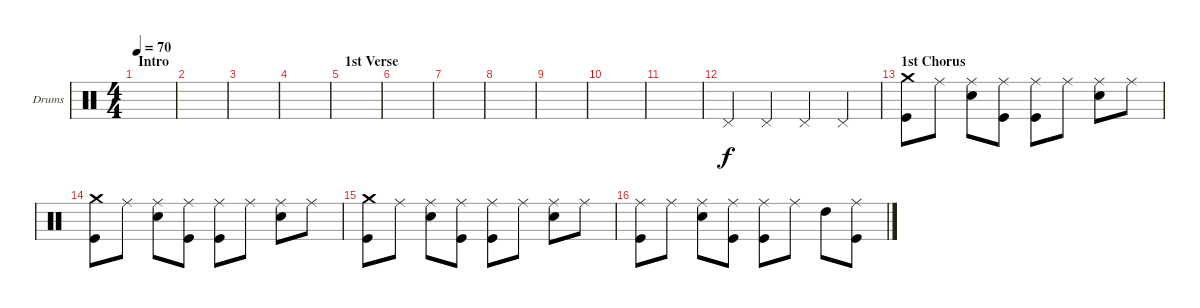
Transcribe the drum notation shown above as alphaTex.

\bracketExtendMode groupsimilarinstruments
\firstSystemTrackNameOrientation horizontal
\otherSystemsTrackNameOrientation horizontal
\track ("Drumkit" "Drums") {instrument percussion}
\staff {score}
\articulation defaults
\ts (4 4)
\section ("" "Intro")
\tempo 70
\clef neutral
\scale
0.472222
\ks c
|
\scale
0.263889 |
\scale
0.263889 |
\scale
0.333333 |
\section ("" "1st Verse")
\scale
0.333333 |
\scale
0.333333 |
\scale
0.333333 |
\scale
0.333333 |
\scale
0.333333 |
\scale
0.333333 |
\scale
0.333333 |
\scale
0.333333 "Pedal Hi-Hat (hit)".4 "Pedal Hi-Hat (hit)".4 "Pedal Hi-Hat (hit)".4 "Pedal Hi-Hat (hit)".4 |
\section ("" "1st Chorus")
\scale
0.333333 ("Crash medium (hit)" "Kick (hit)").8 "Ride (middle)".8 ("Ride (middle)" "Snare (hit) 2").8 ("Ride (middle)" "Kick (hit)").8 ("Ride (middle)" "Kick (hit)").8 "Ride (middle)".8 ("Ride (middle)" "Snare (hit) 2").8 "Ride (middle)".8 |
\scale
0.333333 ("Crash medium (hit)" "Kick (hit)").8 "Ride (middle)".8 ("Ride (middle)" "Snare (hit) 2").8 ("Ride (middle)" "Kick (hit)").8 ("Ride (middle)" "Kick (hit)").8 "Ride (middle)".8 ("Ride (middle)" "Snare (hit) 2").8 "Ride (middle)".8 |
\scale
0.333333 ("Crash medium (hit)" "Kick (hit)").8 "Ride (middle)".8 ("Ride (middle)" "Snare (hit) 2").8 ("Ride (middle)" "Kick (hit)").8 ("Ride (middle)" "Kick (hit)").8 "Ride (middle)".8 ("Ride (middle)" "Snare (hit) 2").8 "Ride (middle)".8 |
\scale
0.333333 ("Ride (middle)" "Kick (hit)").8 "Ride (middle)".8 ("Ride (middle)" "Snare (hit) 2").8 ("Ride (middle)" "Kick (hit)").8 ("Ride (middle)" "Kick (hit)").8 "Ride (middle)".8 "High Tom (hit)".8 ("Ride (middle)" "Kick (hit)").8
